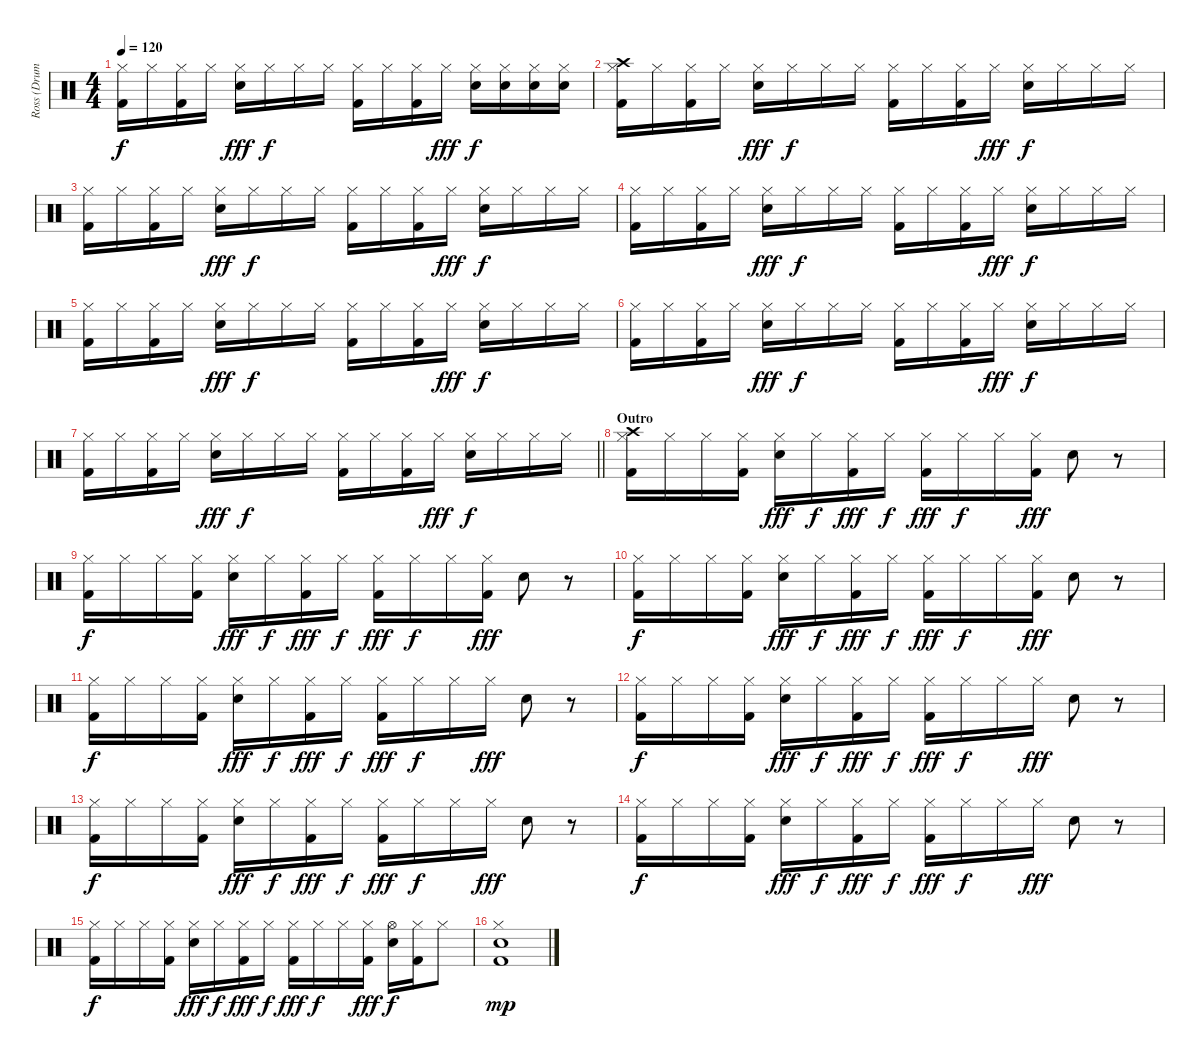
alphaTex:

\track ("Ross (Drums)" "Ross (Drum") {instrument percussion}
\staff {score}
\articulation defaults
\ts (4 4)
\tempo 120
\clef neutral
\ks c
("Hi-Hat (closed)" "Kick (hit) 2").16{dy f} "Hi-Hat (closed)".16 ("Hi-Hat (closed)" "Kick (hit) 2").16 "Hi-Hat (closed)".16 ("Hi-Hat (closed)" "Snare (hit) 2").16{dy fff} "Hi-Hat (closed)".16{dy f} "Hi-Hat (closed)".16 "Hi-Hat (closed)".16 ("Hi-Hat (closed)" "Kick (hit) 2").16 "Hi-Hat (closed)".16 ("Hi-Hat (closed)" "Kick (hit) 2").16 "Hi-Hat (closed)".16{dy fff} ("Hi-Hat (closed)" "Snare (hit) 2").16{dy f} ("Hi-Hat (closed)" "Snare (hit) 2").16 ("Hi-Hat (closed)" "Snare (hit) 2").16 ("Hi-Hat (closed)" "Snare (hit) 2").16 |
("Crash high (hit)" "Hi-Hat (closed)" "Kick (hit) 2").16 "Hi-Hat (closed)".16 ("Hi-Hat (closed)" "Kick (hit) 2").16 "Hi-Hat (closed)".16 ("Hi-Hat (closed)" "Snare (hit) 2").16{dy fff} "Hi-Hat (closed)".16{dy f} "Hi-Hat (closed)".16 "Hi-Hat (closed)".16 ("Hi-Hat (closed)" "Kick (hit) 2").16 "Hi-Hat (closed)".16 ("Hi-Hat (closed)" "Kick (hit) 2").16 "Hi-Hat (closed)".16{dy fff} ("Hi-Hat (closed)" "Snare (hit) 2").16{dy f} "Hi-Hat (closed)".16 "Hi-Hat (closed)".16 "Hi-Hat (closed)".16 |
("Hi-Hat (closed)" "Kick (hit) 2").16 "Hi-Hat (closed)".16 ("Hi-Hat (closed)" "Kick (hit) 2").16 "Hi-Hat (closed)".16 ("Hi-Hat (closed)" "Snare (hit) 2").16{dy fff} "Hi-Hat (closed)".16{dy f} "Hi-Hat (closed)".16 "Hi-Hat (closed)".16 ("Hi-Hat (closed)" "Kick (hit) 2").16 "Hi-Hat (closed)".16 ("Hi-Hat (closed)" "Kick (hit) 2").16 "Hi-Hat (closed)".16{dy fff} ("Hi-Hat (closed)" "Snare (hit) 2").16{dy f} "Hi-Hat (closed)".16 "Hi-Hat (closed)".16 "Hi-Hat (closed)".16 |
("Hi-Hat (closed)" "Kick (hit) 2").16 "Hi-Hat (closed)".16 ("Hi-Hat (closed)" "Kick (hit) 2").16 "Hi-Hat (closed)".16 ("Hi-Hat (closed)" "Snare (hit) 2").16{dy fff} "Hi-Hat (closed)".16{dy f} "Hi-Hat (closed)".16 "Hi-Hat (closed)".16 ("Hi-Hat (closed)" "Kick (hit) 2").16 "Hi-Hat (closed)".16 ("Hi-Hat (closed)" "Kick (hit) 2").16 "Hi-Hat (closed)".16{dy fff} ("Hi-Hat (closed)" "Snare (hit) 2").16{dy f} "Hi-Hat (closed)".16 "Hi-Hat (closed)".16 "Hi-Hat (closed)".16 |
("Hi-Hat (closed)" "Kick (hit) 2").16 "Hi-Hat (closed)".16 ("Hi-Hat (closed)" "Kick (hit) 2").16 "Hi-Hat (closed)".16 ("Hi-Hat (closed)" "Snare (hit) 2").16{dy fff} "Hi-Hat (closed)".16{dy f} "Hi-Hat (closed)".16 "Hi-Hat (closed)".16 ("Hi-Hat (closed)" "Kick (hit) 2").16 "Hi-Hat (closed)".16 ("Hi-Hat (closed)" "Kick (hit) 2").16 "Hi-Hat (closed)".16{dy fff} ("Hi-Hat (closed)" "Snare (hit) 2").16{dy f} "Hi-Hat (closed)".16 "Hi-Hat (closed)".16 "Hi-Hat (closed)".16 |
("Hi-Hat (closed)" "Kick (hit) 2").16 "Hi-Hat (closed)".16 ("Hi-Hat (closed)" "Kick (hit) 2").16 "Hi-Hat (closed)".16 ("Hi-Hat (closed)" "Snare (hit) 2").16{dy fff} "Hi-Hat (closed)".16{dy f} "Hi-Hat (closed)".16 "Hi-Hat (closed)".16 ("Hi-Hat (closed)" "Kick (hit) 2").16 "Hi-Hat (closed)".16 ("Hi-Hat (closed)" "Kick (hit) 2").16 "Hi-Hat (closed)".16{dy fff} ("Hi-Hat (closed)" "Snare (hit) 2").16{dy f} "Hi-Hat (closed)".16 "Hi-Hat (closed)".16 "Hi-Hat (closed)".16 |
\barLineRight lightlight
("Hi-Hat (closed)" "Kick (hit) 2").16 "Hi-Hat (closed)".16 ("Hi-Hat (closed)" "Kick (hit) 2").16 "Hi-Hat (closed)".16 ("Hi-Hat (closed)" "Snare (hit) 2").16{dy fff} "Hi-Hat (closed)".16{dy f} "Hi-Hat (closed)".16 "Hi-Hat (closed)".16 ("Hi-Hat (closed)" "Kick (hit) 2").16 "Hi-Hat (closed)".16 ("Hi-Hat (closed)" "Kick (hit) 2").16 "Hi-Hat (closed)".16{dy fff} ("Hi-Hat (closed)" "Snare (hit) 2").16{dy f} "Hi-Hat (closed)".16 "Hi-Hat (closed)".16 "Hi-Hat (closed)".16 |
\section ("" "Outro")
("Crash high (hit)" "Hi-Hat (closed)" "Kick (hit) 2").16 "Hi-Hat (closed)".16 "Hi-Hat (closed)".16 ("Hi-Hat (closed)" "Kick (hit) 2").16 ("Hi-Hat (closed)" "Snare (hit) 2").16{dy fff} "Hi-Hat (closed)".16{dy f} ("Hi-Hat (closed)" "Kick (hit) 2").16{dy fff} "Hi-Hat (closed)".16{dy f} ("Hi-Hat (closed)" "Kick (hit) 2").16{dy fff} "Hi-Hat (closed)".16{dy f} "Hi-Hat (closed)".16 ("Hi-Hat (closed)" "Kick (hit) 2").16{dy fff} "Snare (hit) 2".8 r.8 |
("Hi-Hat (closed)" "Kick (hit) 2").16{dy f} "Hi-Hat (closed)".16 "Hi-Hat (closed)".16 ("Hi-Hat (closed)" "Kick (hit) 2").16 ("Hi-Hat (closed)" "Snare (hit) 2").16{dy fff} "Hi-Hat (closed)".16{dy f} ("Hi-Hat (closed)" "Kick (hit) 2").16{dy fff} "Hi-Hat (closed)".16{dy f} ("Hi-Hat (closed)" "Kick (hit) 2").16{dy fff} "Hi-Hat (closed)".16{dy f} "Hi-Hat (closed)".16 ("Hi-Hat (closed)" "Kick (hit) 2").16{dy fff} "Snare (hit) 2".8 r.8 |
("Hi-Hat (closed)" "Kick (hit) 2").16{dy f} "Hi-Hat (closed)".16 "Hi-Hat (closed)".16 ("Hi-Hat (closed)" "Kick (hit) 2").16 ("Hi-Hat (closed)" "Snare (hit) 2").16{dy fff} "Hi-Hat (closed)".16{dy f} ("Hi-Hat (closed)" "Kick (hit) 2").16{dy fff} "Hi-Hat (closed)".16{dy f} ("Hi-Hat (closed)" "Kick (hit) 2").16{dy fff} "Hi-Hat (closed)".16{dy f} "Hi-Hat (closed)".16 ("Hi-Hat (closed)" "Kick (hit) 2").16{dy fff} "Snare (hit) 2".8 r.8 |
("Hi-Hat (closed)" "Kick (hit) 2").16{dy f} "Hi-Hat (closed)".16 "Hi-Hat (closed)".16 ("Hi-Hat (closed)" "Kick (hit) 2").16 ("Hi-Hat (closed)" "Snare (hit) 2").16{dy fff} "Hi-Hat (closed)".16{dy f} ("Hi-Hat (closed)" "Kick (hit) 2").16{dy fff} "Hi-Hat (closed)".16{dy f} ("Hi-Hat (closed)" "Kick (hit) 2").16{dy fff} "Hi-Hat (closed)".16{dy f} "Hi-Hat (closed)".16 "Hi-Hat (closed)".16{dy fff} "Snare (hit) 2".8 r.8 |
("Hi-Hat (closed)" "Kick (hit) 2").16{dy f} "Hi-Hat (closed)".16 "Hi-Hat (closed)".16 ("Hi-Hat (closed)" "Kick (hit) 2").16 ("Hi-Hat (closed)" "Snare (hit) 2").16{dy fff} "Hi-Hat (closed)".16{dy f} ("Hi-Hat (closed)" "Kick (hit) 2").16{dy fff} "Hi-Hat (closed)".16{dy f} ("Hi-Hat (closed)" "Kick (hit) 2").16{dy fff} "Hi-Hat (closed)".16{dy f} "Hi-Hat (closed)".16 "Hi-Hat (closed)".16{dy fff} "Snare (hit) 2".8 r.8 |
("Hi-Hat (closed)" "Kick (hit) 2").16{dy f} "Hi-Hat (closed)".16 "Hi-Hat (closed)".16 ("Hi-Hat (closed)" "Kick (hit) 2").16 ("Hi-Hat (closed)" "Snare (hit) 2").16{dy fff} "Hi-Hat (closed)".16{dy f} ("Hi-Hat (closed)" "Kick (hit) 2").16{dy fff} "Hi-Hat (closed)".16{dy f} ("Hi-Hat (closed)" "Kick (hit) 2").16{dy fff} "Hi-Hat (closed)".16{dy f} "Hi-Hat (closed)".16 "Hi-Hat (closed)".16{dy fff} "Snare (hit) 2".8 r.8 |
("Hi-Hat (closed)" "Kick (hit) 2").16{dy f} "Hi-Hat (closed)".16 "Hi-Hat (closed)".16 ("Hi-Hat (closed)" "Kick (hit) 2").16 ("Hi-Hat (closed)" "Snare (hit) 2").16{dy fff} "Hi-Hat (closed)".16{dy f} ("Hi-Hat (closed)" "Kick (hit) 2").16{dy fff} "Hi-Hat (closed)".16{dy f} ("Hi-Hat (closed)" "Kick (hit) 2").16{dy fff} "Hi-Hat (closed)".16{dy f} "Hi-Hat (closed)".16 "Hi-Hat (closed)".16{dy fff} "Snare (hit) 2".8 r.8 |
("Hi-Hat (closed)" "Kick (hit) 2").16{dy f} "Hi-Hat (closed)".16 "Hi-Hat (closed)".16 ("Hi-Hat (closed)" "Kick (hit) 2").16 ("Hi-Hat (closed)" "Snare (hit) 2").16{dy fff} "Hi-Hat (closed)".16{dy f} ("Hi-Hat (closed)" "Kick (hit) 2").16{dy fff} "Hi-Hat (closed)".16{dy f} ("Hi-Hat (closed)" "Kick (hit) 2").16{dy fff} "Hi-Hat (closed)".16{dy f} "Hi-Hat (closed)".16 ("Hi-Hat (closed)" "Kick (hit) 2").16{dy fff} ("Hi-Hat (open)" "Snare (hit) 2").16{dy f} ("Hi-Hat (closed)" "Kick (hit) 2").16 "Hi-Hat (closed)".8 |
("Hi-Hat (closed)" "Kick (hit) 2" "Snare (hit) 2").1{dy mp}
